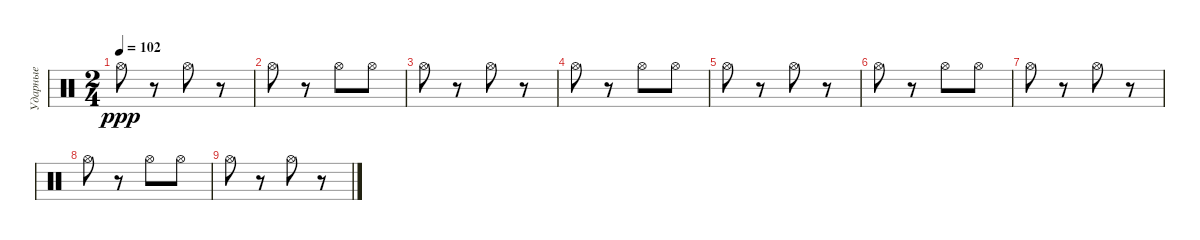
\track ("Ударные" "Ударные") {instrument percussion}
\staff {score}
\articulation defaults
\ts (2 4)
\tempo 102
\clef neutral
\ks c "Hi-Hat (open)".8{dy ppp}
r.8 "Hi-Hat (open)".8 r.8 |
"Hi-Hat (open)".8 r.8 "Hi-Hat (open)".8 "Hi-Hat (open)".8 |
"Hi-Hat (open)".8 r.8 "Hi-Hat (open)".8 r.8 |
"Hi-Hat (open)".8 r.8 "Hi-Hat (open)".8 "Hi-Hat (open)".8 |
"Hi-Hat (open)".8 r.8 "Hi-Hat (open)".8 r.8 |
"Hi-Hat (open)".8 r.8 "Hi-Hat (open)".8 "Hi-Hat (open)".8 |
"Hi-Hat (open)".8 r.8 "Hi-Hat (open)".8 r.8 |
"Hi-Hat (open)".8 r.8 "Hi-Hat (open)".8 "Hi-Hat (open)".8 |
"Hi-Hat (open)".8 r.8 "Hi-Hat (open)".8 r.8
